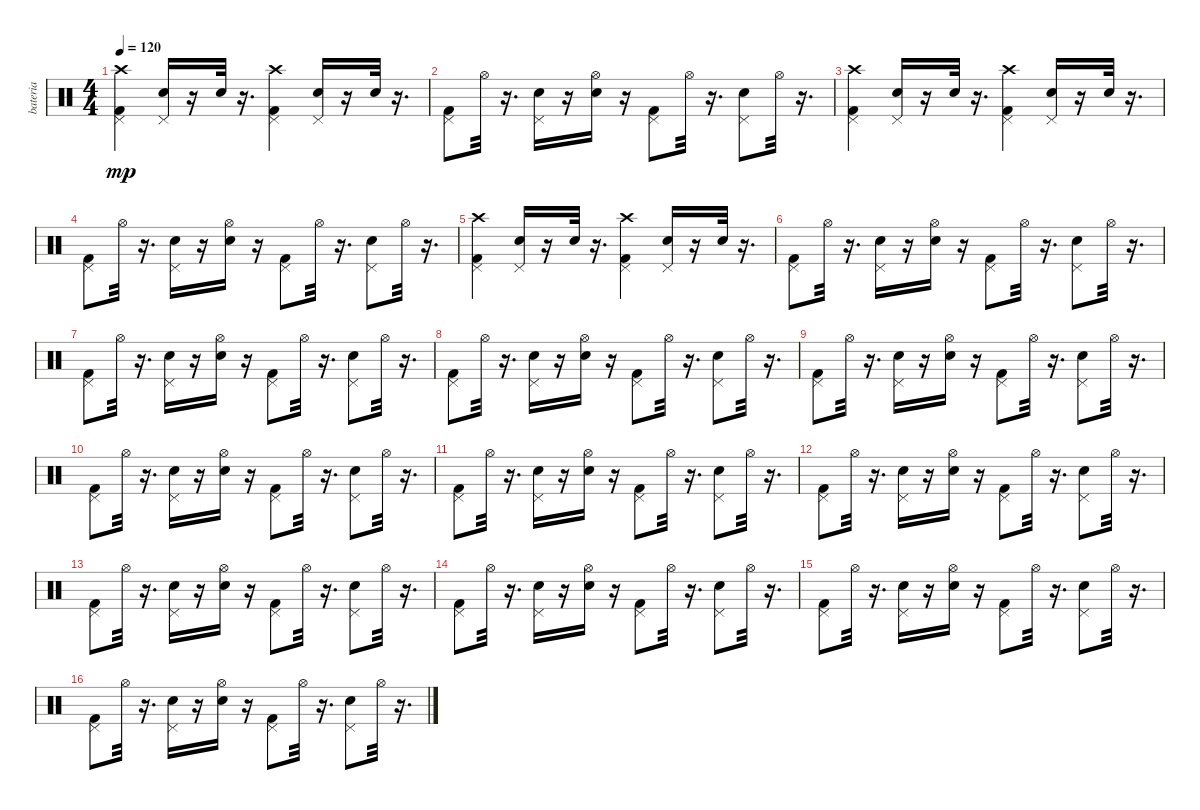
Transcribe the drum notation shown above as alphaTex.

\track ("bateria" "bateria") {instrument percussion}
\staff {score}
\articulation defaults
\ts (4 4)
\tempo 120
\clef neutral
\ks c
("Kick (hit) 2" "Pedal Hi-Hat (hit)" "Crash high (hit)").4{dy mp} ("Snare (hit) 2" "Pedal Hi-Hat (hit)").16 r.16 "Snare (hit) 2".32 r.16{d} ("Kick (hit) 2" "Pedal Hi-Hat (hit)" "Crash high (hit)").4 ("Snare (hit) 2" "Pedal Hi-Hat (hit)").16 r.16 "Snare (hit) 2".32 r.16{d} |
("Kick (hit) 2" "Pedal Hi-Hat (hit)").8 "Hi-Hat (open)".32 r.16{d} ("Snare (hit) 2" "Pedal Hi-Hat (hit)").16 r.16 ("Snare (hit) 2" "Hi-Hat (open)").16 r.16 ("Kick (hit) 2" "Pedal Hi-Hat (hit)").8 "Hi-Hat (open)".32 r.16{d} ("Snare (hit) 2" "Pedal Hi-Hat (hit)").8 "Hi-Hat (open)".32 r.16{d} |
("Kick (hit) 2" "Pedal Hi-Hat (hit)" "Crash high (hit)").4 ("Snare (hit) 2" "Pedal Hi-Hat (hit)").16 r.16 "Snare (hit) 2".32 r.16{d} ("Kick (hit) 2" "Pedal Hi-Hat (hit)" "Crash high (hit)").4 ("Snare (hit) 2" "Pedal Hi-Hat (hit)").16 r.16 "Snare (hit) 2".32 r.16{d} |
("Kick (hit) 2" "Pedal Hi-Hat (hit)").8 "Hi-Hat (open)".32 r.16{d} ("Snare (hit) 2" "Pedal Hi-Hat (hit)").16 r.16 ("Snare (hit) 2" "Hi-Hat (open)").16 r.16 ("Kick (hit) 2" "Pedal Hi-Hat (hit)").8 "Hi-Hat (open)".32 r.16{d} ("Snare (hit) 2" "Pedal Hi-Hat (hit)").8 "Hi-Hat (open)".32 r.16{d} |
("Kick (hit) 2" "Pedal Hi-Hat (hit)" "Crash high (hit)").4 ("Snare (hit) 2" "Pedal Hi-Hat (hit)").16 r.16 "Snare (hit) 2".32 r.16{d} ("Kick (hit) 2" "Pedal Hi-Hat (hit)" "Crash high (hit)").4 ("Snare (hit) 2" "Pedal Hi-Hat (hit)").16 r.16 "Snare (hit) 2".32 r.16{d} |
("Kick (hit) 2" "Pedal Hi-Hat (hit)").8 "Hi-Hat (open)".32 r.16{d} ("Snare (hit) 2" "Pedal Hi-Hat (hit)").16 r.16 ("Snare (hit) 2" "Hi-Hat (open)").16 r.16 ("Kick (hit) 2" "Pedal Hi-Hat (hit)").8 "Hi-Hat (open)".32 r.16{d} ("Snare (hit) 2" "Pedal Hi-Hat (hit)").8 "Hi-Hat (open)".32 r.16{d} |
("Kick (hit) 2" "Pedal Hi-Hat (hit)").8 "Hi-Hat (open)".32 r.16{d} ("Snare (hit) 2" "Pedal Hi-Hat (hit)").16 r.16 ("Snare (hit) 2" "Hi-Hat (open)").16 r.16 ("Kick (hit) 2" "Pedal Hi-Hat (hit)").8 "Hi-Hat (open)".32 r.16{d} ("Snare (hit) 2" "Pedal Hi-Hat (hit)").8 "Hi-Hat (open)".32 r.16{d} |
("Kick (hit) 2" "Pedal Hi-Hat (hit)").8 "Hi-Hat (open)".32 r.16{d} ("Snare (hit) 2" "Pedal Hi-Hat (hit)").16 r.16 ("Snare (hit) 2" "Hi-Hat (open)").16 r.16 ("Kick (hit) 2" "Pedal Hi-Hat (hit)").8 "Hi-Hat (open)".32 r.16{d} ("Snare (hit) 2" "Pedal Hi-Hat (hit)").8 "Hi-Hat (open)".32 r.16{d} |
("Kick (hit) 2" "Pedal Hi-Hat (hit)").8 "Hi-Hat (open)".32 r.16{d} ("Snare (hit) 2" "Pedal Hi-Hat (hit)").16 r.16 ("Snare (hit) 2" "Hi-Hat (open)").16 r.16 ("Kick (hit) 2" "Pedal Hi-Hat (hit)").8 "Hi-Hat (open)".32 r.16{d} ("Snare (hit) 2" "Pedal Hi-Hat (hit)").8 "Hi-Hat (open)".32 r.16{d} |
("Kick (hit) 2" "Pedal Hi-Hat (hit)").8 "Hi-Hat (open)".32 r.16{d} ("Snare (hit) 2" "Pedal Hi-Hat (hit)").16 r.16 ("Snare (hit) 2" "Hi-Hat (open)").16 r.16 ("Kick (hit) 2" "Pedal Hi-Hat (hit)").8 "Hi-Hat (open)".32 r.16{d} ("Snare (hit) 2" "Pedal Hi-Hat (hit)").8 "Hi-Hat (open)".32 r.16{d} |
("Kick (hit) 2" "Pedal Hi-Hat (hit)").8 "Hi-Hat (open)".32 r.16{d} ("Snare (hit) 2" "Pedal Hi-Hat (hit)").16 r.16 ("Snare (hit) 2" "Hi-Hat (open)").16 r.16 ("Kick (hit) 2" "Pedal Hi-Hat (hit)").8 "Hi-Hat (open)".32 r.16{d} ("Snare (hit) 2" "Pedal Hi-Hat (hit)").8 "Hi-Hat (open)".32 r.16{d} |
("Kick (hit) 2" "Pedal Hi-Hat (hit)").8 "Hi-Hat (open)".32 r.16{d} ("Snare (hit) 2" "Pedal Hi-Hat (hit)").16 r.16 ("Snare (hit) 2" "Hi-Hat (open)").16 r.16 ("Kick (hit) 2" "Pedal Hi-Hat (hit)").8 "Hi-Hat (open)".32 r.16{d} ("Snare (hit) 2" "Pedal Hi-Hat (hit)").8 "Hi-Hat (open)".32 r.16{d} |
("Kick (hit) 2" "Pedal Hi-Hat (hit)").8 "Hi-Hat (open)".32 r.16{d} ("Snare (hit) 2" "Pedal Hi-Hat (hit)").16 r.16 ("Snare (hit) 2" "Hi-Hat (open)").16 r.16 ("Kick (hit) 2" "Pedal Hi-Hat (hit)").8 "Hi-Hat (open)".32 r.16{d} ("Snare (hit) 2" "Pedal Hi-Hat (hit)").8 "Hi-Hat (open)".32 r.16{d} |
("Kick (hit) 2" "Pedal Hi-Hat (hit)").8 "Hi-Hat (open)".32 r.16{d} ("Snare (hit) 2" "Pedal Hi-Hat (hit)").16 r.16 ("Snare (hit) 2" "Hi-Hat (open)").16 r.16 ("Kick (hit) 2" "Pedal Hi-Hat (hit)").8 "Hi-Hat (open)".32 r.16{d} ("Snare (hit) 2" "Pedal Hi-Hat (hit)").8 "Hi-Hat (open)".32 r.16{d} |
("Kick (hit) 2" "Pedal Hi-Hat (hit)").8 "Hi-Hat (open)".32 r.16{d} ("Snare (hit) 2" "Pedal Hi-Hat (hit)").16 r.16 ("Snare (hit) 2" "Hi-Hat (open)").16 r.16 ("Kick (hit) 2" "Pedal Hi-Hat (hit)").8 "Hi-Hat (open)".32 r.16{d} ("Snare (hit) 2" "Pedal Hi-Hat (hit)").8 "Hi-Hat (open)".32 r.16{d} |
("Kick (hit) 2" "Pedal Hi-Hat (hit)").8 "Hi-Hat (open)".32 r.16{d} ("Snare (hit) 2" "Pedal Hi-Hat (hit)").16 r.16 ("Snare (hit) 2" "Hi-Hat (open)").16 r.16 ("Kick (hit) 2" "Pedal Hi-Hat (hit)").8 "Hi-Hat (open)".32 r.16{d} ("Snare (hit) 2" "Pedal Hi-Hat (hit)").8 "Hi-Hat (open)".32 r.16{d}
